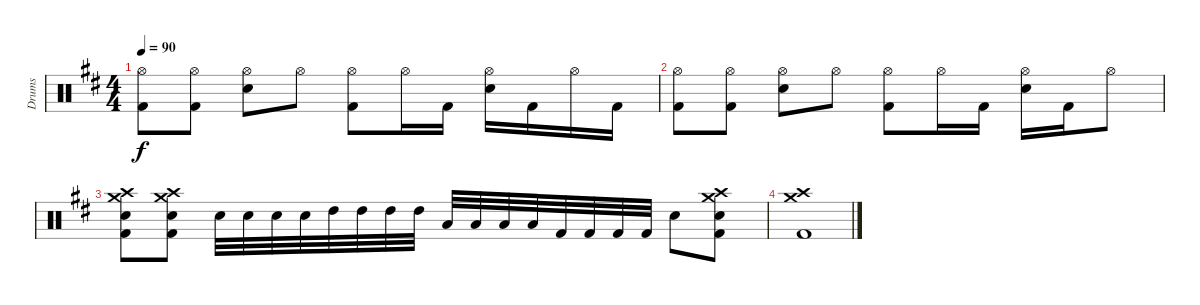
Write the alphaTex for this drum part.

\track ("Drums" "Drums") {instrument percussion}
\staff {score}
\articulation defaults
\ts (4 4)
\tempo 90
\clef neutral
\ks bminor
("Hi-Hat (open)" "Kick (hit) 2").8{dy f} ("Hi-Hat (open)" "Kick (hit) 2").8 ("Hi-Hat (open)" "Snare (hit) 2").8 "Hi-Hat (open)".8 ("Hi-Hat (open)" "Kick (hit) 2").8 "Hi-Hat (open)".16 "Kick (hit) 2".16 ("Hi-Hat (open)" "Snare (hit) 2").16 "Kick (hit) 2".16 "Hi-Hat (open)".16 "Kick (hit) 2".16 |
("Hi-Hat (open)" "Kick (hit) 2").8 ("Hi-Hat (open)" "Kick (hit) 2").8 ("Hi-Hat (open)" "Snare (hit) 2").8 "Hi-Hat (open)".8 ("Hi-Hat (open)" "Kick (hit) 2").8 "Hi-Hat (open)".16 "Kick (hit) 2".16 ("Hi-Hat (open)" "Snare (hit) 2").16 "Kick (hit) 2".16 "Hi-Hat (open)".8 |
("Crash high (hit)" "Crash medium (hit)" "Snare (hit) 2" "Kick (hit) 2").8 ("Crash high (hit)" "Crash medium (hit)" "Snare (hit) 2" "Kick (hit) 2").8 "Snare (hit) 2".32 "Snare (hit) 2".32 "Snare (hit) 2".32 "Snare (hit) 2".32 "High Tom (hit)".32 "High Tom (hit)".32 "High Tom (hit)".32 "High Tom (hit)".32 "Low Tom (hit)".32 "Low Tom (hit)".32 "Low Tom (hit)".32 "Low Tom (hit)".32 "Kick (hit) 2".32 "Kick (hit) 2".32 "Kick (hit) 2".32 "Kick (hit) 2".32 "Snare (hit) 2".8 ("Crash high (hit)" "Crash medium (hit)" "Snare (hit) 2" "Kick (hit) 2").8 |
("Crash high (hit)" "Crash medium (hit)" "Kick (hit) 2").1
